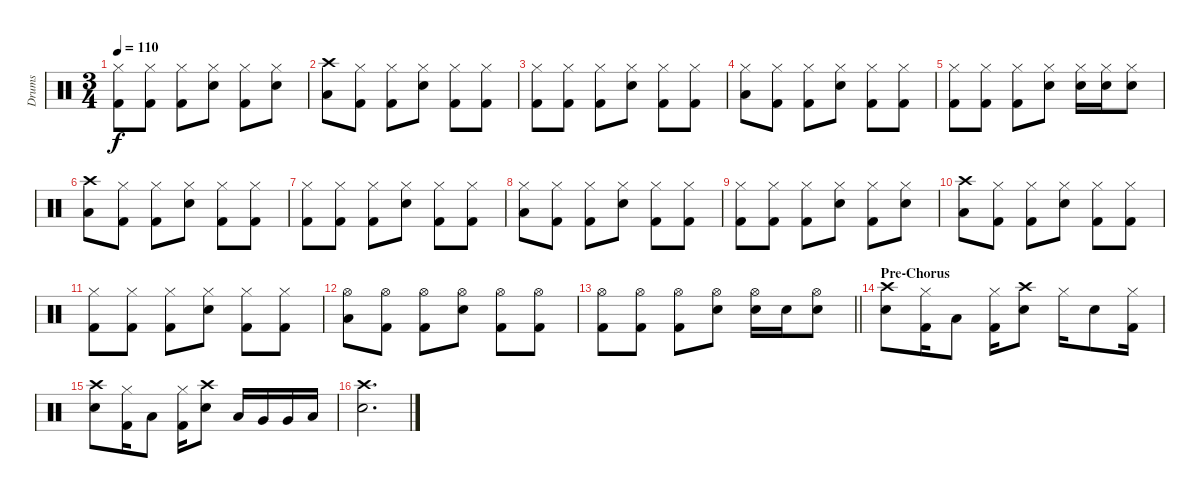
\track ("Drums" "Drums") {instrument percussion}
\staff {score}
\articulation defaults
\ts (3 4)
\tempo 110
\clef neutral
\ks c
("Hi-Hat (closed)" "Kick (hit) 2").8{dy f} ("Hi-Hat (closed)" "Kick (hit) 2").8 ("Hi-Hat (closed)" "Kick (hit) 2").8 ("Hi-Hat (closed)" "Snare (hit) 2").8 ("Hi-Hat (closed)" "Kick (hit) 2").8 ("Hi-Hat (closed)" "Snare (hit) 2").8 |
("Crash high (hit)" "Low Floor Tom (hit)").8 ("Hi-Hat (closed)" "Kick (hit) 2").8 ("Hi-Hat (closed)" "Kick (hit) 2").8 ("Hi-Hat (closed)" "Snare (hit) 2").8 ("Hi-Hat (closed)" "Kick (hit) 2").8 ("Hi-Hat (closed)" "Kick (hit) 2").8 |
("Hi-Hat (closed)" "Kick (hit) 2").8 ("Hi-Hat (closed)" "Kick (hit) 2").8 ("Hi-Hat (closed)" "Kick (hit) 2").8 ("Hi-Hat (closed)" "Snare (hit) 2").8 ("Hi-Hat (closed)" "Kick (hit) 2").8 ("Hi-Hat (closed)" "Kick (hit) 2").8 |
("Hi-Hat (closed)" "Low Floor Tom (hit)").8 ("Hi-Hat (closed)" "Kick (hit) 2").8 ("Hi-Hat (closed)" "Kick (hit) 2").8 ("Hi-Hat (closed)" "Snare (hit) 2").8 ("Hi-Hat (closed)" "Kick (hit) 2").8 ("Hi-Hat (closed)" "Kick (hit) 2").8 |
("Hi-Hat (closed)" "Kick (hit) 2").8 ("Hi-Hat (closed)" "Kick (hit) 2").8 ("Hi-Hat (closed)" "Kick (hit) 2").8 ("Hi-Hat (closed)" "Snare (hit) 2").8 ("Hi-Hat (closed)" "Snare (hit) 2").16 ("Hi-Hat (closed)" "Snare (hit) 2").16 ("Hi-Hat (closed)" "Snare (hit) 2").8 |
("Crash high (hit)" "Low Floor Tom (hit)").8 ("Hi-Hat (closed)" "Kick (hit) 2").8 ("Hi-Hat (closed)" "Kick (hit) 2").8 ("Hi-Hat (closed)" "Snare (hit) 2").8 ("Hi-Hat (closed)" "Kick (hit) 2").8 ("Hi-Hat (closed)" "Kick (hit) 2").8 |
("Hi-Hat (closed)" "Kick (hit) 2").8 ("Hi-Hat (closed)" "Kick (hit) 2").8 ("Hi-Hat (closed)" "Kick (hit) 2").8 ("Hi-Hat (closed)" "Snare (hit) 2").8 ("Hi-Hat (closed)" "Kick (hit) 2").8 ("Hi-Hat (closed)" "Kick (hit) 2").8 |
("Hi-Hat (closed)" "Low Floor Tom (hit)").8 ("Hi-Hat (closed)" "Kick (hit) 2").8 ("Hi-Hat (closed)" "Kick (hit) 2").8 ("Hi-Hat (closed)" "Snare (hit) 2").8 ("Hi-Hat (closed)" "Kick (hit) 2").8 ("Hi-Hat (closed)" "Kick (hit) 2").8 |
("Hi-Hat (closed)" "Kick (hit) 2").8 ("Hi-Hat (closed)" "Kick (hit) 2").8 ("Hi-Hat (closed)" "Kick (hit) 2").8 ("Hi-Hat (closed)" "Snare (hit) 2").8 ("Hi-Hat (closed)" "Kick (hit) 2").8 ("Hi-Hat (closed)" "Snare (hit) 2").8 |
("Crash high (hit)" "Low Floor Tom (hit)").8 ("Hi-Hat (closed)" "Kick (hit) 2").8 ("Hi-Hat (closed)" "Kick (hit) 2").8 ("Hi-Hat (closed)" "Snare (hit) 2").8 ("Hi-Hat (closed)" "Kick (hit) 2").8 ("Hi-Hat (closed)" "Kick (hit) 2").8 |
("Hi-Hat (closed)" "Kick (hit) 2").8 ("Hi-Hat (closed)" "Kick (hit) 2").8 ("Hi-Hat (closed)" "Kick (hit) 2").8 ("Hi-Hat (closed)" "Snare (hit) 2").8 ("Hi-Hat (closed)" "Kick (hit) 2").8 ("Hi-Hat (closed)" "Kick (hit) 2").8 |
("Hi-Hat (open)" "Low Floor Tom (hit)").8 ("Hi-Hat (open)" "Kick (hit) 2").8 ("Hi-Hat (open)" "Kick (hit) 2").8 ("Hi-Hat (open)" "Snare (hit) 2").8 ("Hi-Hat (open)" "Kick (hit) 2").8 ("Hi-Hat (open)" "Kick (hit) 2").8 |
\barLineRight lightlight
("Hi-Hat (open)" "Kick (hit) 2").8 ("Hi-Hat (open)" "Kick (hit) 2").8 ("Hi-Hat (open)" "Kick (hit) 2").8 ("Hi-Hat (open)" "Snare (hit) 2").8 ("Hi-Hat (open)" "Snare (hit) 2").16 "Snare (hit) 2".16 ("Hi-Hat (open)" "Snare (hit) 2").8 |
\section ("" "Pre-Chorus")
("Crash high (hit)" "Snare (hit) 2").8 ("Hi-Hat (closed)" "Kick (hit) 2").16 "Low Tom (hit)".8 ("Hi-Hat (closed)" "Kick (hit) 2").16 ("Crash high (hit)" "Snare (hit) 2").8 "Hi-Hat (closed)".16 "Snare (hit) 2".8 ("Hi-Hat (closed)" "Kick (hit) 2").16 |
("Crash high (hit)" "Snare (hit) 2").8 ("Hi-Hat (closed)" "Kick (hit) 2").16 "Low Tom (hit)".8 ("Hi-Hat (closed)" "Kick (hit) 2").16 ("Crash high (hit)" "Snare (hit) 2").8 "Low Tom (hit)".16 "Very Low Tom (hit)".16 "Very Low Tom (hit)".16 "Low Floor Tom (hit)".16 |
("Crash high (hit)" "Snare (hit) 2").2{d}
